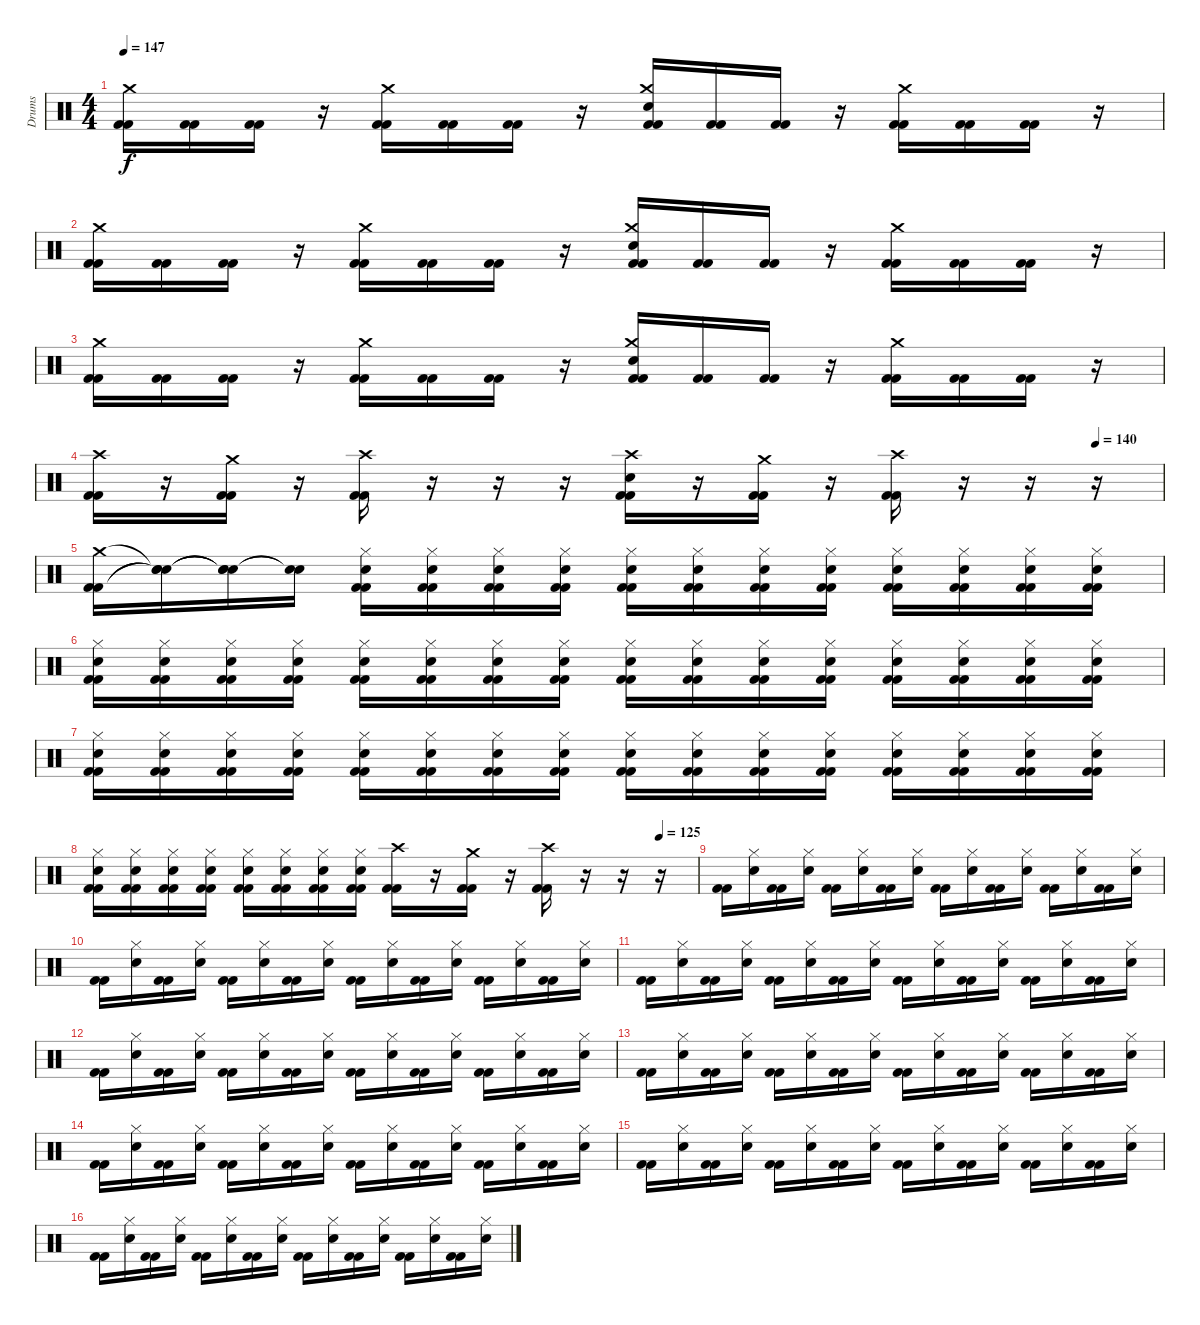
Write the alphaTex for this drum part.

\track ("Drums" "Drums") {instrument percussion}
\staff {score}
\articulation defaults
\ts (4 4)
\tempo 147
\clef neutral
\ks c
("Kick (hit) 2" "Crash medium (hit)" "Kick (hit) 2").16{dy f} ("Kick (hit) 2" "Kick (hit) 2").16 ("Kick (hit) 2" "Kick (hit) 2").16 r.16 ("Kick (hit) 2" "Crash medium (hit)" "Kick (hit) 2").16 ("Kick (hit) 2" "Kick (hit) 2").16 ("Kick (hit) 2" "Kick (hit) 2").16 r.16 ("Kick (hit) 2" "Crash medium (hit)" "Snare (hit) 2" "Kick (hit) 2").16 ("Kick (hit) 2" "Kick (hit) 2").16 ("Kick (hit) 2" "Kick (hit) 2").16 r.16 ("Kick (hit) 2" "Crash medium (hit)" "Kick (hit) 2").16 ("Kick (hit) 2" "Kick (hit) 2").16 ("Kick (hit) 2" "Kick (hit) 2").16 r.16 |
("Kick (hit) 2" "Crash medium (hit)" "Kick (hit) 2").16 ("Kick (hit) 2" "Kick (hit) 2").16 ("Kick (hit) 2" "Kick (hit) 2").16 r.16 ("Kick (hit) 2" "Crash medium (hit)" "Kick (hit) 2").16 ("Kick (hit) 2" "Kick (hit) 2").16 ("Kick (hit) 2" "Kick (hit) 2").16 r.16 ("Kick (hit) 2" "Crash medium (hit)" "Snare (hit) 2" "Kick (hit) 2").16 ("Kick (hit) 2" "Kick (hit) 2").16 ("Kick (hit) 2" "Kick (hit) 2").16 r.16 ("Kick (hit) 2" "Crash medium (hit)" "Kick (hit) 2").16 ("Kick (hit) 2" "Kick (hit) 2").16 ("Kick (hit) 2" "Kick (hit) 2").16 r.16 |
("Kick (hit) 2" "Crash medium (hit)" "Kick (hit) 2").16 ("Kick (hit) 2" "Kick (hit) 2").16 ("Kick (hit) 2" "Kick (hit) 2").16 r.16 ("Kick (hit) 2" "Crash medium (hit)" "Kick (hit) 2").16 ("Kick (hit) 2" "Kick (hit) 2").16 ("Kick (hit) 2" "Kick (hit) 2").16 r.16 ("Kick (hit) 2" "Crash medium (hit)" "Snare (hit) 2" "Kick (hit) 2").16 ("Kick (hit) 2" "Kick (hit) 2").16 ("Kick (hit) 2" "Kick (hit) 2").16 r.16 ("Kick (hit) 2" "Crash medium (hit)" "Kick (hit) 2").16 ("Kick (hit) 2" "Kick (hit) 2").16 ("Kick (hit) 2" "Kick (hit) 2").16 r.16 |
\tempo (140 0.9375)
("Kick (hit) 2" "Crash high (hit)" "Kick (hit) 2").16 r.16 ("Kick (hit) 2" "Crash medium (hit)" "Kick (hit) 2").16 r.16 ("Kick (hit) 2" "Crash high (hit)" "Kick (hit) 2").16 r.16 r.16 r.16 ("Kick (hit) 2" "Crash high (hit)" "Snare (hit) 2" "Kick (hit) 2").16 r.16 ("Kick (hit) 2" "Crash medium (hit)" "Kick (hit) 2").16 r.16 ("Kick (hit) 2" "Crash high (hit)" "Kick (hit) 2").16 r.16 r.16 r.16 |
("Crash medium (hit)" "Kick (hit) 2" "Kick (hit) 2").16 ("Snare (hit)"{t} "Snare (hit)"{t} "Snare (hit)"{t}).16 ("Snare (hit)"{t} "Snare (hit)"{t} "Snare (hit)"{t}).16 ("Snare (hit)"{t} "Snare (hit)"{t}).16 ("Kick (hit) 2" "Hi-Hat (closed)" "Snare (hit) 2" "Kick (hit) 2").16 ("Kick (hit) 2" "Hi-Hat (closed)" "Snare (hit) 2" "Kick (hit) 2").16 ("Kick (hit) 2" "Hi-Hat (closed)" "Snare (hit) 2" "Kick (hit) 2").16 ("Kick (hit) 2" "Hi-Hat (closed)" "Snare (hit) 2" "Kick (hit) 2").16 ("Kick (hit) 2" "Hi-Hat (closed)" "Snare (hit) 2" "Kick (hit) 2").16 ("Kick (hit) 2" "Hi-Hat (closed)" "Snare (hit) 2" "Kick (hit) 2").16 ("Kick (hit) 2" "Hi-Hat (closed)" "Snare (hit) 2" "Kick (hit) 2").16 ("Kick (hit) 2" "Hi-Hat (closed)" "Snare (hit) 2" "Kick (hit) 2").16 ("Kick (hit) 2" "Hi-Hat (closed)" "Snare (hit) 2" "Kick (hit) 2").16 ("Kick (hit) 2" "Hi-Hat (closed)" "Snare (hit) 2" "Kick (hit) 2").16 ("Kick (hit) 2" "Hi-Hat (closed)" "Snare (hit) 2" "Kick (hit) 2").16 ("Kick (hit) 2" "Hi-Hat (closed)" "Snare (hit) 2" "Kick (hit) 2").16 |
("Kick (hit) 2" "Hi-Hat (closed)" "Snare (hit) 2" "Kick (hit) 2").16 ("Kick (hit) 2" "Hi-Hat (closed)" "Snare (hit) 2" "Kick (hit) 2").16 ("Kick (hit) 2" "Hi-Hat (closed)" "Snare (hit) 2" "Kick (hit) 2").16 ("Kick (hit) 2" "Hi-Hat (closed)" "Snare (hit) 2" "Kick (hit) 2").16 ("Kick (hit) 2" "Hi-Hat (closed)" "Snare (hit) 2" "Kick (hit) 2").16 ("Kick (hit) 2" "Hi-Hat (closed)" "Snare (hit) 2" "Kick (hit) 2").16 ("Kick (hit) 2" "Hi-Hat (closed)" "Snare (hit) 2" "Kick (hit) 2").16 ("Kick (hit) 2" "Hi-Hat (closed)" "Snare (hit) 2" "Kick (hit) 2").16 ("Kick (hit) 2" "Hi-Hat (closed)" "Snare (hit) 2" "Kick (hit) 2").16 ("Kick (hit) 2" "Hi-Hat (closed)" "Snare (hit) 2" "Kick (hit) 2").16 ("Kick (hit) 2" "Hi-Hat (closed)" "Snare (hit) 2" "Kick (hit) 2").16 ("Kick (hit) 2" "Hi-Hat (closed)" "Snare (hit) 2" "Kick (hit) 2").16 ("Kick (hit) 2" "Hi-Hat (closed)" "Snare (hit) 2" "Kick (hit) 2").16 ("Kick (hit) 2" "Hi-Hat (closed)" "Snare (hit) 2" "Kick (hit) 2").16 ("Kick (hit) 2" "Hi-Hat (closed)" "Snare (hit) 2" "Kick (hit) 2").16 ("Kick (hit) 2" "Hi-Hat (closed)" "Snare (hit) 2" "Kick (hit) 2").16 |
("Kick (hit) 2" "Hi-Hat (closed)" "Snare (hit) 2" "Kick (hit) 2").16 ("Kick (hit) 2" "Hi-Hat (closed)" "Snare (hit) 2" "Kick (hit) 2").16 ("Kick (hit) 2" "Hi-Hat (closed)" "Snare (hit) 2" "Kick (hit) 2").16 ("Kick (hit) 2" "Hi-Hat (closed)" "Snare (hit) 2" "Kick (hit) 2").16 ("Kick (hit) 2" "Hi-Hat (closed)" "Snare (hit) 2" "Kick (hit) 2").16 ("Kick (hit) 2" "Hi-Hat (closed)" "Snare (hit) 2" "Kick (hit) 2").16 ("Kick (hit) 2" "Hi-Hat (closed)" "Snare (hit) 2" "Kick (hit) 2").16 ("Kick (hit) 2" "Hi-Hat (closed)" "Snare (hit) 2" "Kick (hit) 2").16 ("Kick (hit) 2" "Hi-Hat (closed)" "Snare (hit) 2" "Kick (hit) 2").16 ("Kick (hit) 2" "Hi-Hat (closed)" "Snare (hit) 2" "Kick (hit) 2").16 ("Kick (hit) 2" "Hi-Hat (closed)" "Snare (hit) 2" "Kick (hit) 2").16 ("Kick (hit) 2" "Hi-Hat (closed)" "Snare (hit) 2" "Kick (hit) 2").16 ("Kick (hit) 2" "Hi-Hat (closed)" "Snare (hit) 2" "Kick (hit) 2").16 ("Kick (hit) 2" "Hi-Hat (closed)" "Snare (hit) 2" "Kick (hit) 2").16 ("Kick (hit) 2" "Hi-Hat (closed)" "Snare (hit) 2" "Kick (hit) 2").16 ("Kick (hit) 2" "Hi-Hat (closed)" "Snare (hit) 2" "Kick (hit) 2").16 |
\tempo (125 0.9375)
("Kick (hit) 2" "Hi-Hat (closed)" "Snare (hit) 2" "Kick (hit) 2").16 ("Kick (hit) 2" "Hi-Hat (closed)" "Snare (hit) 2" "Kick (hit) 2").16 ("Kick (hit) 2" "Hi-Hat (closed)" "Snare (hit) 2" "Kick (hit) 2").16 ("Kick (hit) 2" "Hi-Hat (closed)" "Snare (hit) 2" "Kick (hit) 2").16 ("Kick (hit) 2" "Hi-Hat (closed)" "Snare (hit) 2" "Kick (hit) 2").16 ("Kick (hit) 2" "Hi-Hat (closed)" "Snare (hit) 2" "Kick (hit) 2").16 ("Kick (hit) 2" "Hi-Hat (closed)" "Snare (hit) 2" "Kick (hit) 2").16 ("Kick (hit) 2" "Hi-Hat (closed)" "Snare (hit) 2" "Kick (hit) 2").16 ("Kick (hit) 2" "Crash high (hit)" "Kick (hit) 2").16 r.16 ("Kick (hit) 2" "Crash medium (hit)" "Kick (hit) 2").16 r.16 ("Kick (hit) 2" "Crash high (hit)" "Kick (hit) 2").16 r.16 r.16 r.16 |
("Kick (hit) 2" "Kick (hit) 2").16 ("Hi-Hat (closed)" "Snare (hit) 2").16 ("Kick (hit) 2" "Kick (hit) 2").16 ("Hi-Hat (closed)" "Snare (hit) 2").16 ("Kick (hit) 2" "Kick (hit) 2").16 ("Hi-Hat (closed)" "Snare (hit) 2").16 ("Kick (hit) 2" "Kick (hit) 2").16 ("Hi-Hat (closed)" "Snare (hit) 2").16 ("Kick (hit) 2" "Kick (hit) 2").16 ("Hi-Hat (closed)" "Snare (hit) 2").16 ("Kick (hit) 2" "Kick (hit) 2").16 ("Hi-Hat (closed)" "Snare (hit) 2").16 ("Kick (hit) 2" "Kick (hit) 2").16 ("Hi-Hat (closed)" "Snare (hit) 2").16 ("Kick (hit) 2" "Kick (hit) 2").16 ("Hi-Hat (closed)" "Snare (hit) 2").16 |
("Kick (hit) 2" "Kick (hit) 2").16 ("Hi-Hat (closed)" "Snare (hit) 2").16 ("Kick (hit) 2" "Kick (hit) 2").16 ("Hi-Hat (closed)" "Snare (hit) 2").16 ("Kick (hit) 2" "Kick (hit) 2").16 ("Hi-Hat (closed)" "Snare (hit) 2").16 ("Kick (hit) 2" "Kick (hit) 2").16 ("Hi-Hat (closed)" "Snare (hit) 2").16 ("Kick (hit) 2" "Kick (hit) 2").16 ("Hi-Hat (closed)" "Snare (hit) 2").16 ("Kick (hit) 2" "Kick (hit) 2").16 ("Hi-Hat (closed)" "Snare (hit) 2").16 ("Kick (hit) 2" "Kick (hit) 2").16 ("Hi-Hat (closed)" "Snare (hit) 2").16 ("Kick (hit) 2" "Kick (hit) 2").16 ("Hi-Hat (closed)" "Snare (hit) 2").16 |
("Kick (hit) 2" "Kick (hit) 2").16 ("Hi-Hat (closed)" "Snare (hit) 2").16 ("Kick (hit) 2" "Kick (hit) 2").16 ("Hi-Hat (closed)" "Snare (hit) 2").16 ("Kick (hit) 2" "Kick (hit) 2").16 ("Hi-Hat (closed)" "Snare (hit) 2").16 ("Kick (hit) 2" "Kick (hit) 2").16 ("Hi-Hat (closed)" "Snare (hit) 2").16 ("Kick (hit) 2" "Kick (hit) 2").16 ("Hi-Hat (closed)" "Snare (hit) 2").16 ("Kick (hit) 2" "Kick (hit) 2").16 ("Hi-Hat (closed)" "Snare (hit) 2").16 ("Kick (hit) 2" "Kick (hit) 2").16 ("Hi-Hat (closed)" "Snare (hit) 2").16 ("Kick (hit) 2" "Kick (hit) 2").16 ("Hi-Hat (closed)" "Snare (hit) 2").16 |
("Kick (hit) 2" "Kick (hit) 2").16 ("Hi-Hat (closed)" "Snare (hit) 2").16 ("Kick (hit) 2" "Kick (hit) 2").16 ("Hi-Hat (closed)" "Snare (hit) 2").16 ("Kick (hit) 2" "Kick (hit) 2").16 ("Hi-Hat (closed)" "Snare (hit) 2").16 ("Kick (hit) 2" "Kick (hit) 2").16 ("Hi-Hat (closed)" "Snare (hit) 2").16 ("Kick (hit) 2" "Kick (hit) 2").16 ("Hi-Hat (closed)" "Snare (hit) 2").16 ("Kick (hit) 2" "Kick (hit) 2").16 ("Hi-Hat (closed)" "Snare (hit) 2").16 ("Kick (hit) 2" "Kick (hit) 2").16 ("Hi-Hat (closed)" "Snare (hit) 2").16 ("Kick (hit) 2" "Kick (hit) 2").16 ("Hi-Hat (closed)" "Snare (hit) 2").16 |
("Kick (hit) 2" "Kick (hit) 2").16 ("Hi-Hat (closed)" "Snare (hit) 2").16 ("Kick (hit) 2" "Kick (hit) 2").16 ("Hi-Hat (closed)" "Snare (hit) 2").16 ("Kick (hit) 2" "Kick (hit) 2").16 ("Hi-Hat (closed)" "Snare (hit) 2").16 ("Kick (hit) 2" "Kick (hit) 2").16 ("Hi-Hat (closed)" "Snare (hit) 2").16 ("Kick (hit) 2" "Kick (hit) 2").16 ("Hi-Hat (closed)" "Snare (hit) 2").16 ("Kick (hit) 2" "Kick (hit) 2").16 ("Hi-Hat (closed)" "Snare (hit) 2").16 ("Kick (hit) 2" "Kick (hit) 2").16 ("Hi-Hat (closed)" "Snare (hit) 2").16 ("Kick (hit) 2" "Kick (hit) 2").16 ("Hi-Hat (closed)" "Snare (hit) 2").16 |
("Kick (hit) 2" "Kick (hit) 2").16 ("Hi-Hat (closed)" "Snare (hit) 2").16 ("Kick (hit) 2" "Kick (hit) 2").16 ("Hi-Hat (closed)" "Snare (hit) 2").16 ("Kick (hit) 2" "Kick (hit) 2").16 ("Hi-Hat (closed)" "Snare (hit) 2").16 ("Kick (hit) 2" "Kick (hit) 2").16 ("Hi-Hat (closed)" "Snare (hit) 2").16 ("Kick (hit) 2" "Kick (hit) 2").16 ("Hi-Hat (closed)" "Snare (hit) 2").16 ("Kick (hit) 2" "Kick (hit) 2").16 ("Hi-Hat (closed)" "Snare (hit) 2").16 ("Kick (hit) 2" "Kick (hit) 2").16 ("Hi-Hat (closed)" "Snare (hit) 2").16 ("Kick (hit) 2" "Kick (hit) 2").16 ("Hi-Hat (closed)" "Snare (hit) 2").16 |
("Kick (hit) 2" "Kick (hit) 2").16 ("Hi-Hat (closed)" "Snare (hit) 2").16 ("Kick (hit) 2" "Kick (hit) 2").16 ("Hi-Hat (closed)" "Snare (hit) 2").16 ("Kick (hit) 2" "Kick (hit) 2").16 ("Hi-Hat (closed)" "Snare (hit) 2").16 ("Kick (hit) 2" "Kick (hit) 2").16 ("Hi-Hat (closed)" "Snare (hit) 2").16 ("Kick (hit) 2" "Kick (hit) 2").16 ("Hi-Hat (closed)" "Snare (hit) 2").16 ("Kick (hit) 2" "Kick (hit) 2").16 ("Hi-Hat (closed)" "Snare (hit) 2").16 ("Kick (hit) 2" "Kick (hit) 2").16 ("Hi-Hat (closed)" "Snare (hit) 2").16 ("Kick (hit) 2" "Kick (hit) 2").16 ("Hi-Hat (closed)" "Snare (hit) 2").16 |
("Kick (hit) 2" "Kick (hit) 2").16 ("Hi-Hat (closed)" "Snare (hit) 2").16 ("Kick (hit) 2" "Kick (hit) 2").16 ("Hi-Hat (closed)" "Snare (hit) 2").16 ("Kick (hit) 2" "Kick (hit) 2").16 ("Hi-Hat (closed)" "Snare (hit) 2").16 ("Kick (hit) 2" "Kick (hit) 2").16 ("Hi-Hat (closed)" "Snare (hit) 2").16 ("Kick (hit) 2" "Kick (hit) 2").16 ("Hi-Hat (closed)" "Snare (hit) 2").16 ("Kick (hit) 2" "Kick (hit) 2").16 ("Hi-Hat (closed)" "Snare (hit) 2").16 ("Kick (hit) 2" "Kick (hit) 2").16 ("Hi-Hat (closed)" "Snare (hit) 2").16 ("Kick (hit) 2" "Kick (hit) 2").16 ("Hi-Hat (closed)" "Snare (hit) 2").16
